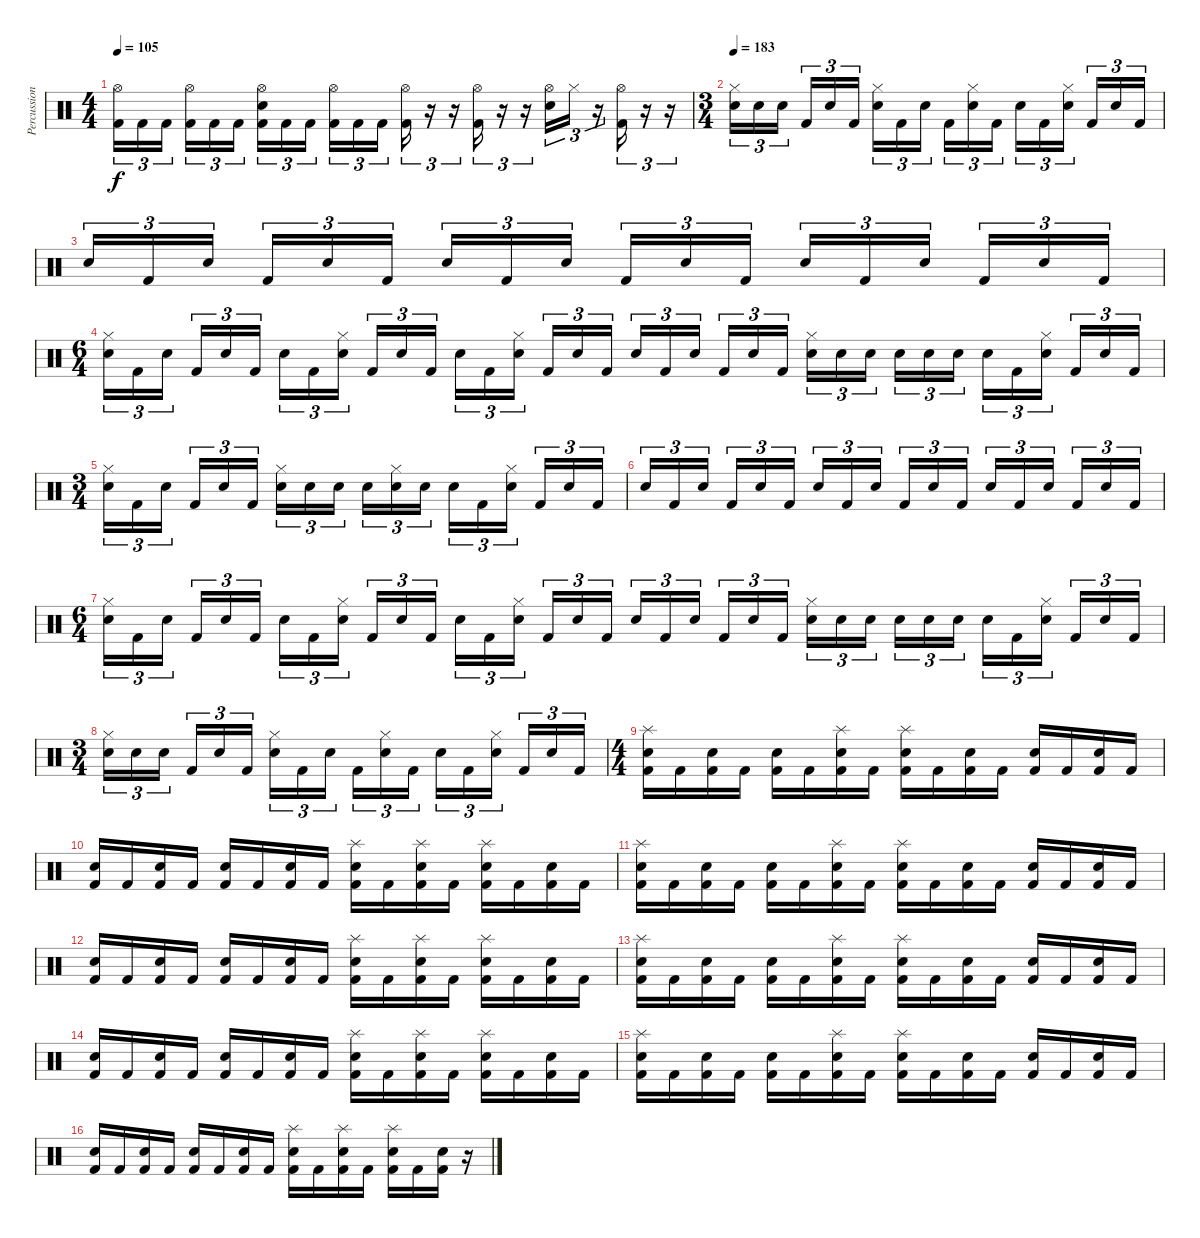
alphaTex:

\track ("Percussion" "Percussion") {instrument percussion}
\staff {score}
\articulation defaults
\ts (4 4)
\tempo 105
\clef neutral
\ks c
("Hi-Hat (open)" "Kick (hit) 2").16{tu (3 2) dy f} "Kick (hit) 2".16{tu (3 2)} "Kick (hit) 2".16{tu (3 2)} ("Hi-Hat (open)" "Kick (hit) 2").16{tu (3 2)} "Kick (hit) 2".16{tu (3 2)} "Kick (hit) 2".16{tu (3 2)} ("Hi-Hat (open)" "Electric Snare (hit)" "Kick (hit) 2").16{tu (3 2)} "Kick (hit) 2".16{tu (3 2)} "Kick (hit) 2".16{tu (3 2)} ("Hi-Hat (open)" "Kick (hit) 2").16{tu (3 2)} "Kick (hit) 2".16{tu (3 2)} "Kick (hit) 2".16{tu (3 2)} ("Hi-Hat (open)" "Kick (hit) 2").16{tu (3 2)} r.16{tu (3 2)} r.16{tu (3 2)} ("Hi-Hat (open)" "Kick (hit) 2").16{tu (3 2)} r.16{tu (3 2)} r.16{tu (3 2)} ("Hi-Hat (open)" "Electric Snare (hit)").16{tu (3 2)} "Hi-Hat (closed)".16{tu (3 2)} r.16{tu (3 2)} ("Hi-Hat (open)" "Kick (hit) 2").16{tu (3 2)} r.16{tu (3 2)} r.16{tu (3 2)} |
\ts (3 4)
\tempo 183
("Hi-Hat (closed)" "Electric Snare (hit)").16{tu (3 2)} "Electric Snare (hit)".16{tu (3 2)} "Electric Snare (hit)".16{tu (3 2)} "Kick (hit) 2".16{tu (3 2)} "Electric Snare (hit)".16{tu (3 2)} "Kick (hit) 2".16{tu (3 2)} ("Hi-Hat (closed)" "Electric Snare (hit)").16{tu (3 2)} "Kick (hit) 2".16{tu (3 2)} "Electric Snare (hit)".16{tu (3 2)} "Kick (hit) 2".16{tu (3 2)} ("Hi-Hat (closed)" "Electric Snare (hit)").16{tu (3 2)} "Kick (hit) 2".16{tu (3 2)} "Electric Snare (hit)".16{tu (3 2)} "Kick (hit) 2".16{tu (3 2)} ("Hi-Hat (closed)" "Electric Snare (hit)").16{tu (3 2)} "Kick (hit) 2".16{tu (3 2)} "Electric Snare (hit)".16{tu (3 2)} "Kick (hit) 2".16{tu (3 2)} |
"Electric Snare (hit)".16{tu (3 2)} "Kick (hit) 2".16{tu (3 2)} "Electric Snare (hit)".16{tu (3 2)} "Kick (hit) 2".16{tu (3 2)} "Electric Snare (hit)".16{tu (3 2)} "Kick (hit) 2".16{tu (3 2)} "Electric Snare (hit)".16{tu (3 2)} "Kick (hit) 2".16{tu (3 2)} "Electric Snare (hit)".16{tu (3 2)} "Kick (hit) 2".16{tu (3 2)} "Electric Snare (hit)".16{tu (3 2)} "Kick (hit) 2".16{tu (3 2)} "Electric Snare (hit)".16{tu (3 2)} "Kick (hit) 2".16{tu (3 2)} "Electric Snare (hit)".16{tu (3 2)} "Kick (hit) 2".16{tu (3 2)} "Electric Snare (hit)".16{tu (3 2)} "Kick (hit) 2".16{tu (3 2)} |
\ts (6 4)
("Hi-Hat (closed)" "Electric Snare (hit)").16{tu (3 2)} "Kick (hit) 2".16{tu (3 2)} "Electric Snare (hit)".16{tu (3 2)} "Kick (hit) 2".16{tu (3 2)} "Electric Snare (hit)".16{tu (3 2)} "Kick (hit) 2".16{tu (3 2)} "Electric Snare (hit)".16{tu (3 2)} "Kick (hit) 2".16{tu (3 2)} ("Hi-Hat (closed)" "Electric Snare (hit)").16{tu (3 2)} "Kick (hit) 2".16{tu (3 2)} "Electric Snare (hit)".16{tu (3 2)} "Kick (hit) 2".16{tu (3 2)} "Electric Snare (hit)".16{tu (3 2)} "Kick (hit) 2".16{tu (3 2)} ("Hi-Hat (closed)" "Electric Snare (hit)").16{tu (3 2)} "Kick (hit) 2".16{tu (3 2)} "Electric Snare (hit)".16{tu (3 2)} "Kick (hit) 2".16{tu (3 2)} "Electric Snare (hit)".16{tu (3 2)} "Kick (hit) 2".16{tu (3 2)} "Electric Snare (hit)".16{tu (3 2)} "Kick (hit) 2".16{tu (3 2)} "Electric Snare (hit)".16{tu (3 2)} "Kick (hit) 2".16{tu (3 2)} ("Hi-Hat (closed)" "Electric Snare (hit)").16{tu (3 2)} "Electric Snare (hit)".16{tu (3 2)} "Electric Snare (hit)".16{tu (3 2)} "Electric Snare (hit)".16{tu (3 2)} "Electric Snare (hit)".16{tu (3 2)} "Electric Snare (hit)".16{tu (3 2)} "Electric Snare (hit)".16{tu (3 2)} "Kick (hit) 2".16{tu (3 2)} ("Hi-Hat (closed)" "Electric Snare (hit)").16{tu (3 2)} "Kick (hit) 2".16{tu (3 2)} "Electric Snare (hit)".16{tu (3 2)} "Kick (hit) 2".16{tu (3 2)} |
\ts (3 4)
("Hi-Hat (closed)" "Electric Snare (hit)").16{tu (3 2)} "Kick (hit) 2".16{tu (3 2)} "Electric Snare (hit)".16{tu (3 2)} "Kick (hit) 2".16{tu (3 2)} "Electric Snare (hit)".16{tu (3 2)} "Kick (hit) 2".16{tu (3 2)} ("Hi-Hat (closed)" "Electric Snare (hit)").16{tu (3 2)} "Electric Snare (hit)".16{tu (3 2)} "Electric Snare (hit)".16{tu (3 2)} "Electric Snare (hit)".16{tu (3 2)} ("Hi-Hat (closed)" "Electric Snare (hit)").16{tu (3 2)} "Electric Snare (hit)".16{tu (3 2)} "Electric Snare (hit)".16{tu (3 2)} "Kick (hit) 2".16{tu (3 2)} ("Hi-Hat (closed)" "Electric Snare (hit)").16{tu (3 2)} "Kick (hit) 2".16{tu (3 2)} "Electric Snare (hit)".16{tu (3 2)} "Kick (hit) 2".16{tu (3 2)} |
"Electric Snare (hit)".16{tu (3 2)} "Kick (hit) 2".16{tu (3 2)} "Electric Snare (hit)".16{tu (3 2)} "Kick (hit) 2".16{tu (3 2)} "Electric Snare (hit)".16{tu (3 2)} "Kick (hit) 2".16{tu (3 2)} "Electric Snare (hit)".16{tu (3 2)} "Kick (hit) 2".16{tu (3 2)} "Electric Snare (hit)".16{tu (3 2)} "Kick (hit) 2".16{tu (3 2)} "Electric Snare (hit)".16{tu (3 2)} "Kick (hit) 2".16{tu (3 2)} "Electric Snare (hit)".16{tu (3 2)} "Kick (hit) 2".16{tu (3 2)} "Electric Snare (hit)".16{tu (3 2)} "Kick (hit) 2".16{tu (3 2)} "Electric Snare (hit)".16{tu (3 2)} "Kick (hit) 2".16{tu (3 2)} |
\ts (6 4)
("Hi-Hat (closed)" "Electric Snare (hit)").16{tu (3 2)} "Kick (hit) 2".16{tu (3 2)} "Electric Snare (hit)".16{tu (3 2)} "Kick (hit) 2".16{tu (3 2)} "Electric Snare (hit)".16{tu (3 2)} "Kick (hit) 2".16{tu (3 2)} "Electric Snare (hit)".16{tu (3 2)} "Kick (hit) 2".16{tu (3 2)} ("Hi-Hat (closed)" "Electric Snare (hit)").16{tu (3 2)} "Kick (hit) 2".16{tu (3 2)} "Electric Snare (hit)".16{tu (3 2)} "Kick (hit) 2".16{tu (3 2)} "Electric Snare (hit)".16{tu (3 2)} "Kick (hit) 2".16{tu (3 2)} ("Hi-Hat (closed)" "Electric Snare (hit)").16{tu (3 2)} "Kick (hit) 2".16{tu (3 2)} "Electric Snare (hit)".16{tu (3 2)} "Kick (hit) 2".16{tu (3 2)} "Electric Snare (hit)".16{tu (3 2)} "Kick (hit) 2".16{tu (3 2)} "Electric Snare (hit)".16{tu (3 2)} "Kick (hit) 2".16{tu (3 2)} "Electric Snare (hit)".16{tu (3 2)} "Kick (hit) 2".16{tu (3 2)} ("Hi-Hat (closed)" "Electric Snare (hit)").16{tu (3 2)} "Electric Snare (hit)".16{tu (3 2)} "Electric Snare (hit)".16{tu (3 2)} "Electric Snare (hit)".16{tu (3 2)} "Electric Snare (hit)".16{tu (3 2)} "Electric Snare (hit)".16{tu (3 2)} "Electric Snare (hit)".16{tu (3 2)} "Kick (hit) 2".16{tu (3 2)} ("Hi-Hat (closed)" "Electric Snare (hit)").16{tu (3 2)} "Kick (hit) 2".16{tu (3 2)} "Electric Snare (hit)".16{tu (3 2)} "Kick (hit) 2".16{tu (3 2)} |
\ts (3 4)
("Hi-Hat (closed)" "Electric Snare (hit)").16{tu (3 2)} "Electric Snare (hit)".16{tu (3 2)} "Electric Snare (hit)".16{tu (3 2)} "Kick (hit) 2".16{tu (3 2)} "Electric Snare (hit)".16{tu (3 2)} "Kick (hit) 2".16{tu (3 2)} ("Hi-Hat (closed)" "Electric Snare (hit)").16{tu (3 2)} "Kick (hit) 2".16{tu (3 2)} "Electric Snare (hit)".16{tu (3 2)} "Kick (hit) 2".16{tu (3 2)} ("Hi-Hat (closed)" "Electric Snare (hit)").16{tu (3 2)} "Kick (hit) 2".16{tu (3 2)} "Electric Snare (hit)".16{tu (3 2)} "Kick (hit) 2".16{tu (3 2)} ("Hi-Hat (closed)" "Electric Snare (hit)").16{tu (3 2)} "Kick (hit) 2".16{tu (3 2)} "Electric Snare (hit)".16{tu (3 2)} "Kick (hit) 2".16{tu (3 2)} |
\ts (4 4)
("Splash (hit)" "Electric Snare (hit)" "Kick (hit) 2").16 "Kick (hit) 2".16 ("Electric Snare (hit)" "Kick (hit) 2").16 "Kick (hit) 2".16 ("Electric Snare (hit)" "Kick (hit) 2").16 "Kick (hit) 2".16 ("Splash (hit)" "Electric Snare (hit)" "Kick (hit) 2").16 "Kick (hit) 2".16 ("Splash (hit)" "Electric Snare (hit)" "Kick (hit) 2").16 "Kick (hit) 2".16 ("Electric Snare (hit)" "Kick (hit) 2").16 "Kick (hit) 2".16 ("Electric Snare (hit)" "Kick (hit) 2").16 "Kick (hit) 2".16 ("Electric Snare (hit)" "Kick (hit) 2").16 "Kick (hit) 2".16 |
("Electric Snare (hit)" "Kick (hit) 2").16 "Kick (hit) 2".16 ("Electric Snare (hit)" "Kick (hit) 2").16 "Kick (hit) 2".16 ("Electric Snare (hit)" "Kick (hit) 2").16 "Kick (hit) 2".16 ("Electric Snare (hit)" "Kick (hit) 2").16 "Kick (hit) 2".16 ("Splash (hit)" "Electric Snare (hit)" "Kick (hit) 2").16 "Kick (hit) 2".16 ("Splash (hit)" "Electric Snare (hit)" "Kick (hit) 2").16 "Kick (hit) 2".16 ("Splash (hit)" "Electric Snare (hit)" "Kick (hit) 2").16 "Kick (hit) 2".16 ("Electric Snare (hit)" "Kick (hit) 2").16 "Kick (hit) 2".16 |
("Splash (hit)" "Electric Snare (hit)" "Kick (hit) 2").16 "Kick (hit) 2".16 ("Electric Snare (hit)" "Kick (hit) 2").16 "Kick (hit) 2".16 ("Electric Snare (hit)" "Kick (hit) 2").16 "Kick (hit) 2".16 ("Splash (hit)" "Electric Snare (hit)" "Kick (hit) 2").16 "Kick (hit) 2".16 ("Splash (hit)" "Electric Snare (hit)" "Kick (hit) 2").16 "Kick (hit) 2".16 ("Electric Snare (hit)" "Kick (hit) 2").16 "Kick (hit) 2".16 ("Electric Snare (hit)" "Kick (hit) 2").16 "Kick (hit) 2".16 ("Electric Snare (hit)" "Kick (hit) 2").16 "Kick (hit) 2".16 |
("Electric Snare (hit)" "Kick (hit) 2").16 "Kick (hit) 2".16 ("Electric Snare (hit)" "Kick (hit) 2").16 "Kick (hit) 2".16 ("Electric Snare (hit)" "Kick (hit) 2").16 "Kick (hit) 2".16 ("Electric Snare (hit)" "Kick (hit) 2").16 "Kick (hit) 2".16 ("Splash (hit)" "Electric Snare (hit)" "Kick (hit) 2").16 "Kick (hit) 2".16 ("Splash (hit)" "Electric Snare (hit)" "Kick (hit) 2").16 "Kick (hit) 2".16 ("Splash (hit)" "Electric Snare (hit)" "Kick (hit) 2").16 "Kick (hit) 2".16 ("Electric Snare (hit)" "Kick (hit) 2").16 "Kick (hit) 2".16 |
("Splash (hit)" "Electric Snare (hit)" "Kick (hit) 2").16 "Kick (hit) 2".16 ("Electric Snare (hit)" "Kick (hit) 2").16 "Kick (hit) 2".16 ("Electric Snare (hit)" "Kick (hit) 2").16 "Kick (hit) 2".16 ("Splash (hit)" "Electric Snare (hit)" "Kick (hit) 2").16 "Kick (hit) 2".16 ("Splash (hit)" "Electric Snare (hit)" "Kick (hit) 2").16 "Kick (hit) 2".16 ("Electric Snare (hit)" "Kick (hit) 2").16 "Kick (hit) 2".16 ("Electric Snare (hit)" "Kick (hit) 2").16 "Kick (hit) 2".16 ("Electric Snare (hit)" "Kick (hit) 2").16 "Kick (hit) 2".16 |
("Electric Snare (hit)" "Kick (hit) 2").16 "Kick (hit) 2".16 ("Electric Snare (hit)" "Kick (hit) 2").16 "Kick (hit) 2".16 ("Electric Snare (hit)" "Kick (hit) 2").16 "Kick (hit) 2".16 ("Electric Snare (hit)" "Kick (hit) 2").16 "Kick (hit) 2".16 ("Splash (hit)" "Electric Snare (hit)" "Kick (hit) 2").16 "Kick (hit) 2".16 ("Splash (hit)" "Electric Snare (hit)" "Kick (hit) 2").16 "Kick (hit) 2".16 ("Splash (hit)" "Electric Snare (hit)" "Kick (hit) 2").16 "Kick (hit) 2".16 ("Electric Snare (hit)" "Kick (hit) 2").16 "Kick (hit) 2".16 |
("Splash (hit)" "Electric Snare (hit)" "Kick (hit) 2").16 "Kick (hit) 2".16 ("Electric Snare (hit)" "Kick (hit) 2").16 "Kick (hit) 2".16 ("Electric Snare (hit)" "Kick (hit) 2").16 "Kick (hit) 2".16 ("Splash (hit)" "Electric Snare (hit)" "Kick (hit) 2").16 "Kick (hit) 2".16 ("Splash (hit)" "Electric Snare (hit)" "Kick (hit) 2").16 "Kick (hit) 2".16 ("Electric Snare (hit)" "Kick (hit) 2").16 "Kick (hit) 2".16 ("Electric Snare (hit)" "Kick (hit) 2").16 "Kick (hit) 2".16 ("Electric Snare (hit)" "Kick (hit) 2").16 "Kick (hit) 2".16 |
("Electric Snare (hit)" "Kick (hit) 2").16 "Kick (hit) 2".16 ("Electric Snare (hit)" "Kick (hit) 2").16 "Kick (hit) 2".16 ("Electric Snare (hit)" "Kick (hit) 2").16 "Kick (hit) 2".16 ("Electric Snare (hit)" "Kick (hit) 2").16 "Kick (hit) 2".16 ("Splash (hit)" "Electric Snare (hit)" "Kick (hit) 2").16 "Kick (hit) 2".16 ("Splash (hit)" "Electric Snare (hit)" "Kick (hit) 2").16 "Kick (hit) 2".16 ("Splash (hit)" "Electric Snare (hit)" "Kick (hit) 2").16 "Kick (hit) 2".16 ("Electric Snare (hit)" "Kick (hit) 2").16 r.16
